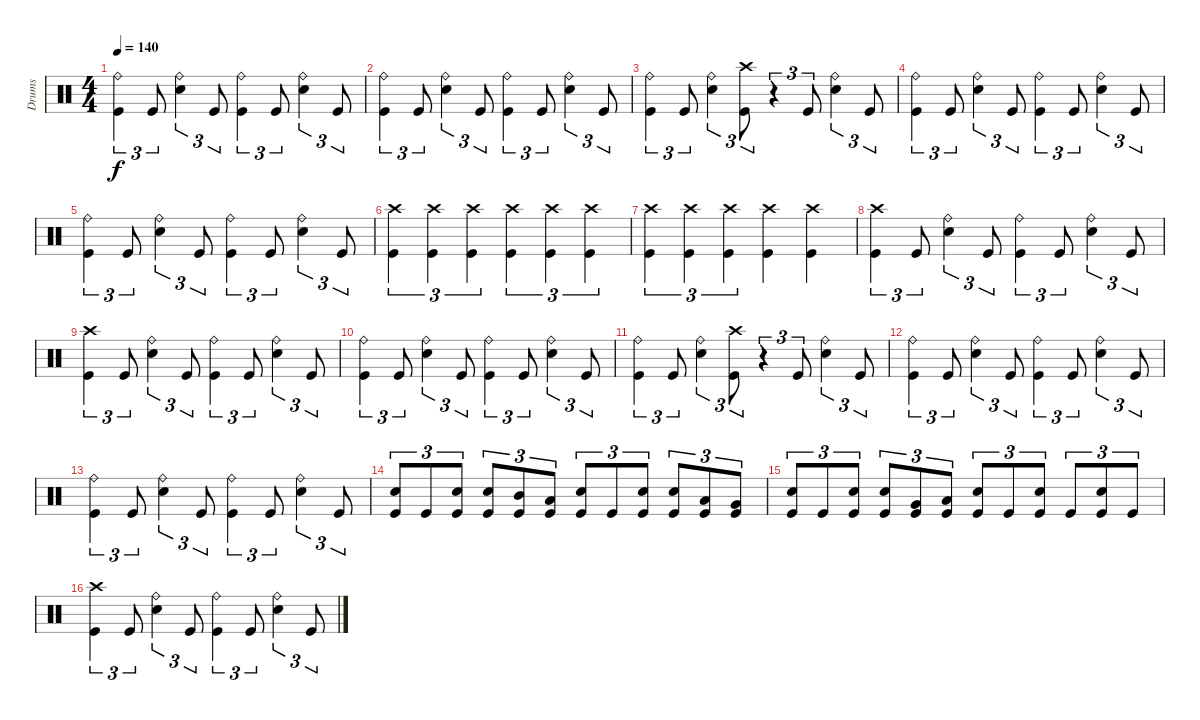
\track ("Drums" "Drums") {instrument percussion}
\staff {score}
\articulation defaults
\ts (4 4)
\tempo 140
\clef neutral
\ks c
("Ride (bell)" "Kick (hit)").4{tu (3 2) dy f} "Kick (hit)".8{tu (3 2)} ("Ride (bell)" "Snare (hit) 2").4{tu (3 2)} "Kick (hit)".8{tu (3 2)} ("Ride (bell)" "Kick (hit)").4{tu (3 2)} "Kick (hit)".8{tu (3 2)} ("Ride (bell)" "Snare (hit) 2").4{tu (3 2)} "Kick (hit)".8{tu (3 2)} |
("Ride (bell)" "Kick (hit)").4{tu (3 2)} "Kick (hit)".8{tu (3 2)} ("Ride (bell)" "Snare (hit) 2").4{tu (3 2)} "Kick (hit)".8{tu (3 2)} ("Ride (bell)" "Kick (hit)").4{tu (3 2)} "Kick (hit)".8{tu (3 2)} ("Ride (bell)" "Snare (hit) 2").4{tu (3 2)} "Kick (hit)".8{tu (3 2)} |
("Ride (bell)" "Kick (hit)").4{tu (3 2)} "Kick (hit)".8{tu (3 2)} ("Ride (bell)" "Snare (hit) 2").4{tu (3 2)} ("Crash high (hit)" "Kick (hit)").8{tu (3 2)} r.4{tu (3 2)} "Kick (hit)".8{tu (3 2)} ("Ride (bell)" "Snare (hit) 2").4{tu (3 2)} "Kick (hit)".8{tu (3 2)} |
("Ride (bell)" "Kick (hit)").4{tu (3 2)} "Kick (hit)".8{tu (3 2)} ("Ride (bell)" "Snare (hit) 2").4{tu (3 2)} "Kick (hit)".8{tu (3 2)} ("Ride (bell)" "Kick (hit)").4{tu (3 2)} "Kick (hit)".8{tu (3 2)} ("Ride (bell)" "Snare (hit) 2").4{tu (3 2)} "Kick (hit)".8{tu (3 2)} |
("Ride (bell)" "Kick (hit)").4{tu (3 2)} "Kick (hit)".8{tu (3 2)} ("Ride (bell)" "Snare (hit) 2").4{tu (3 2)} "Kick (hit)".8{tu (3 2)} ("Ride (bell)" "Kick (hit)").4{tu (3 2)} "Kick (hit)".8{tu (3 2)} ("Ride (bell)" "Snare (hit) 2").4{tu (3 2)} "Kick (hit)".8{tu (3 2)} |
("Crash high (hit)" "Kick (hit)").4{tu (3 2)} ("Crash high (hit)" "Kick (hit)").4{tu (3 2)} ("Crash high (hit)" "Kick (hit)").4{tu (3 2)} ("Crash high (hit)" "Kick (hit)").4{tu (3 2)} ("Crash high (hit)" "Kick (hit)").4{tu (3 2)} ("Crash high (hit)" "Kick (hit)").4{tu (3 2)} |
("Crash high (hit)" "Kick (hit)").4{tu (3 2)} ("Crash high (hit)" "Kick (hit)").4{tu (3 2)} ("Crash high (hit)" "Kick (hit)").4{tu (3 2)} ("Crash high (hit)" "Kick (hit)").4 ("Crash high (hit)" "Kick (hit)").4 |
("Crash high (hit)" "Kick (hit)").4{tu (3 2)} "Kick (hit)".8{tu (3 2)} ("Ride (bell)" "Snare (hit) 2").4{tu (3 2)} "Kick (hit)".8{tu (3 2)} ("Ride (bell)" "Kick (hit)").4{tu (3 2)} "Kick (hit)".8{tu (3 2)} ("Ride (bell)" "Snare (hit) 2").4{tu (3 2)} "Kick (hit)".8{tu (3 2)} |
("Crash high (hit)" "Kick (hit)").4{tu (3 2)} "Kick (hit)".8{tu (3 2)} ("Ride (bell)" "Snare (hit) 2").4{tu (3 2)} "Kick (hit)".8{tu (3 2)} ("Ride (bell)" "Kick (hit)").4{tu (3 2)} "Kick (hit)".8{tu (3 2)} ("Ride (bell)" "Snare (hit) 2").4{tu (3 2)} "Kick (hit)".8{tu (3 2)} |
("Ride (bell)" "Kick (hit)").4{tu (3 2)} "Kick (hit)".8{tu (3 2)} ("Ride (bell)" "Snare (hit) 2").4{tu (3 2)} "Kick (hit)".8{tu (3 2)} ("Ride (bell)" "Kick (hit)").4{tu (3 2)} "Kick (hit)".8{tu (3 2)} ("Ride (bell)" "Snare (hit) 2").4{tu (3 2)} "Kick (hit)".8{tu (3 2)} |
("Ride (bell)" "Kick (hit)").4{tu (3 2)} "Kick (hit)".8{tu (3 2)} ("Ride (bell)" "Snare (hit) 2").4{tu (3 2)} ("Crash high (hit)" "Kick (hit)").8{tu (3 2)} r.4{tu (3 2)} "Kick (hit)".8{tu (3 2)} ("Ride (bell)" "Snare (hit) 2").4{tu (3 2)} "Kick (hit)".8{tu (3 2)} |
("Ride (bell)" "Kick (hit)").4{tu (3 2)} "Kick (hit)".8{tu (3 2)} ("Ride (bell)" "Snare (hit) 2").4{tu (3 2)} "Kick (hit)".8{tu (3 2)} ("Ride (bell)" "Kick (hit)").4{tu (3 2)} "Kick (hit)".8{tu (3 2)} ("Ride (bell)" "Snare (hit) 2").4{tu (3 2)} "Kick (hit)".8{tu (3 2)} |
("Ride (bell)" "Kick (hit)").4{tu (3 2)} "Kick (hit)".8{tu (3 2)} ("Ride (bell)" "Snare (hit) 2").4{tu (3 2)} "Kick (hit)".8{tu (3 2)} ("Ride (bell)" "Kick (hit)").4{tu (3 2)} "Kick (hit)".8{tu (3 2)} ("Ride (bell)" "Snare (hit) 2").4{tu (3 2)} "Kick (hit)".8{tu (3 2)} |
("Snare (hit) 2" "Kick (hit)").8{tu (3 2)} "Kick (hit)".8{tu (3 2)} ("Snare (hit) 2" "Kick (hit)").8{tu (3 2)} ("Snare (hit) 2" "Kick (hit)").8{tu (3 2)} ("Mid Tom (hit)" "Kick (hit)").8{tu (3 2)} ("Low Tom (hit)" "Kick (hit)").8{tu (3 2)} ("Snare (hit) 2" "Kick (hit)").8{tu (3 2)} "Kick (hit)".8{tu (3 2)} ("Snare (hit) 2" "Kick (hit)").8{tu (3 2)} ("Snare (hit) 2" "Kick (hit)").8{tu (3 2)} ("Low Tom (hit)" "Kick (hit)").8{tu (3 2)} ("Very Low Tom (hit)" "Kick (hit)").8{tu (3 2)} |
("Snare (hit) 2" "Kick (hit)").8{tu (3 2)} "Kick (hit)".8{tu (3 2)} ("Snare (hit) 2" "Kick (hit)").8{tu (3 2)} ("Snare (hit) 2" "Kick (hit)").8{tu (3 2)} ("Very Low Tom (hit)" "Kick (hit)").8{tu (3 2)} ("Low Floor Tom (hit)" "Kick (hit)").8{tu (3 2)} ("Snare (hit) 2" "Kick (hit)").8{tu (3 2)} "Kick (hit)".8{tu (3 2)} ("Snare (hit) 2" "Kick (hit)").8{tu (3 2)} "Kick (hit)".8{tu (3 2)} ("Snare (hit) 2" "Kick (hit)").8{tu (3 2)} "Kick (hit)".8{tu (3 2)} |
("Crash high (hit)" "Kick (hit)").4{tu (3 2)} "Kick (hit)".8{tu (3 2)} ("Ride (bell)" "Snare (hit) 2").4{tu (3 2)} "Kick (hit)".8{tu (3 2)} ("Ride (bell)" "Kick (hit)").4{tu (3 2)} "Kick (hit)".8{tu (3 2)} ("Ride (bell)" "Snare (hit) 2").4{tu (3 2)} "Kick (hit)".8{tu (3 2)}
